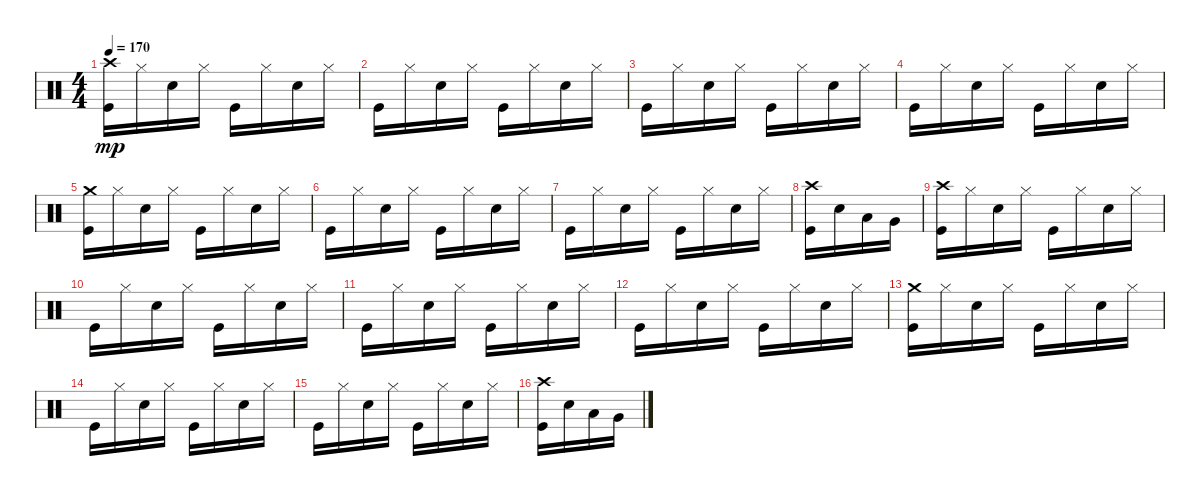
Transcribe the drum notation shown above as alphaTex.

\track "" {instrument percussion}
\staff {score}
\articulation defaults
\ts (4 4)
\tempo 170
\clef neutral
\ks c
("Crash high (hit)" "Kick (hit)").16{dy mp} "Hi-Hat (closed)".16 "Snare (hit) 2".16 "Hi-Hat (closed)".16 "Kick (hit)".16 "Hi-Hat (closed)".16 "Snare (hit) 2".16 "Hi-Hat (closed)".16 |
"Kick (hit)".16 "Hi-Hat (closed)".16 "Snare (hit) 2".16 "Hi-Hat (closed)".16 "Kick (hit)".16 "Hi-Hat (closed)".16 "Snare (hit) 2".16 "Hi-Hat (closed)".16 |
"Kick (hit)".16 "Hi-Hat (closed)".16 "Snare (hit) 2".16 "Hi-Hat (closed)".16 "Kick (hit)".16 "Hi-Hat (closed)".16 "Snare (hit) 2".16 "Hi-Hat (closed)".16 |
"Kick (hit)".16 "Hi-Hat (closed)".16 "Snare (hit) 2".16 "Hi-Hat (closed)".16 "Kick (hit)".16 "Hi-Hat (closed)".16 "Snare (hit) 2".16 "Hi-Hat (closed)".16 |
("Crash medium (hit)" "Kick (hit)").16 "Hi-Hat (closed)".16 "Snare (hit) 2".16 "Hi-Hat (closed)".16 "Kick (hit)".16 "Hi-Hat (closed)".16 "Snare (hit) 2".16 "Hi-Hat (closed)".16 |
"Kick (hit)".16 "Hi-Hat (closed)".16 "Snare (hit) 2".16 "Hi-Hat (closed)".16 "Kick (hit)".16 "Hi-Hat (closed)".16 "Snare (hit) 2".16 "Hi-Hat (closed)".16 |
"Kick (hit)".16 "Hi-Hat (closed)".16 "Snare (hit) 2".16 "Hi-Hat (closed)".16 "Kick (hit)".16 "Hi-Hat (closed)".16 "Snare (hit) 2".16 "Hi-Hat (closed)".16 |
("Crash high (hit)" "Kick (hit)").16 "Snare (hit) 2".16 "Low Tom (hit)".16 "Very Low Tom (hit)".16 |
("Crash high (hit)" "Kick (hit)").16 "Hi-Hat (closed)".16 "Snare (hit) 2".16 "Hi-Hat (closed)".16 "Kick (hit)".16 "Hi-Hat (closed)".16 "Snare (hit) 2".16 "Hi-Hat (closed)".16 |
"Kick (hit)".16 "Hi-Hat (closed)".16 "Snare (hit) 2".16 "Hi-Hat (closed)".16 "Kick (hit)".16 "Hi-Hat (closed)".16 "Snare (hit) 2".16 "Hi-Hat (closed)".16 |
"Kick (hit)".16 "Hi-Hat (closed)".16 "Snare (hit) 2".16 "Hi-Hat (closed)".16 "Kick (hit)".16 "Hi-Hat (closed)".16 "Snare (hit) 2".16 "Hi-Hat (closed)".16 |
"Kick (hit)".16 "Hi-Hat (closed)".16 "Snare (hit) 2".16 "Hi-Hat (closed)".16 "Kick (hit)".16 "Hi-Hat (closed)".16 "Snare (hit) 2".16 "Hi-Hat (closed)".16 |
("Crash medium (hit)" "Kick (hit)").16 "Hi-Hat (closed)".16 "Snare (hit) 2".16 "Hi-Hat (closed)".16 "Kick (hit)".16 "Hi-Hat (closed)".16 "Snare (hit) 2".16 "Hi-Hat (closed)".16 |
"Kick (hit)".16 "Hi-Hat (closed)".16 "Snare (hit) 2".16 "Hi-Hat (closed)".16 "Kick (hit)".16 "Hi-Hat (closed)".16 "Snare (hit) 2".16 "Hi-Hat (closed)".16 |
"Kick (hit)".16 "Hi-Hat (closed)".16 "Snare (hit) 2".16 "Hi-Hat (closed)".16 "Kick (hit)".16 "Hi-Hat (closed)".16 "Snare (hit) 2".16 "Hi-Hat (closed)".16 |
("Crash high (hit)" "Kick (hit)").16 "Snare (hit) 2".16 "Low Tom (hit)".16 "Very Low Tom (hit)".16
